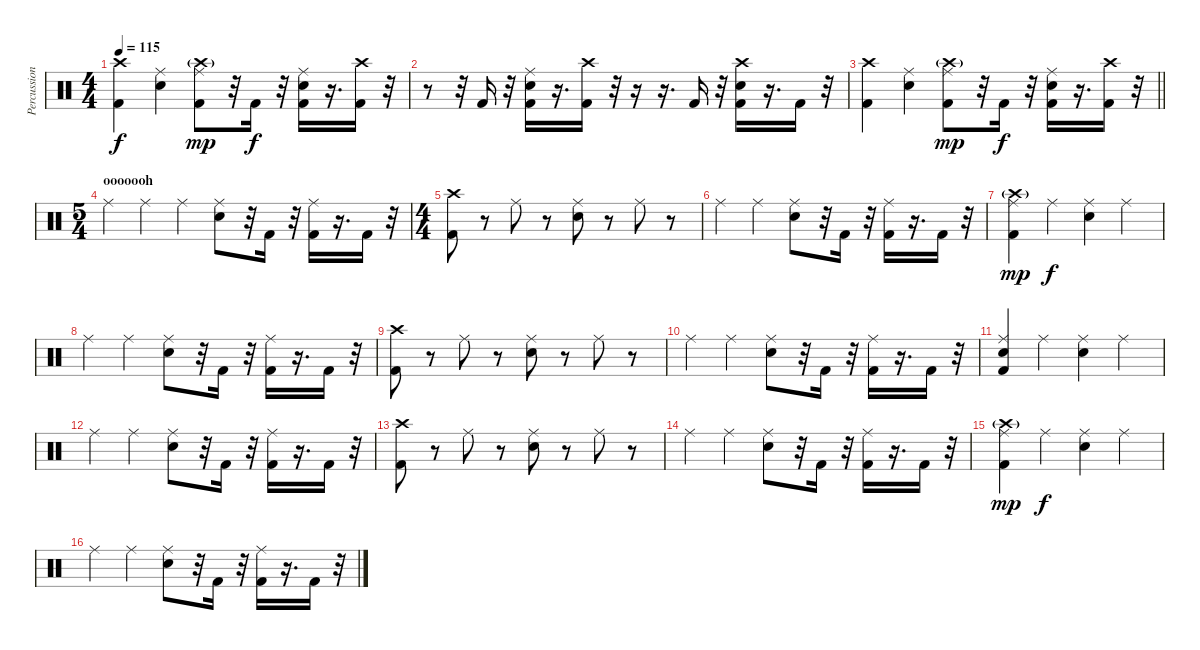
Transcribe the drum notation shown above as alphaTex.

\track ("Percussion" "Percussion") {instrument percussion}
\staff {score}
\articulation defaults
\ts (4 4)
\tempo 115
\clef neutral
\ks c
("Crash high (hit)" "Kick (hit) 2").4{dy f} ("Ride (middle)" "Electric Snare (hit)").4 ("Crash high (hit)"{g} "Ride (middle)" "Kick (hit) 2").8{dy mp} r.32 "Kick (hit) 2".16{dy f} r.32 ("Ride (middle)" "Electric Snare (hit)" "Kick (hit) 2").16 r.16{d} ("Crash high (hit)" "Kick (hit) 2").16 r.32 |
r.8 r.32 "Kick (hit) 2".16 r.32 ("Ride (middle)" "Electric Snare (hit)" "Kick (hit) 2").16 r.16{d} ("Crash high (hit)" "Kick (hit) 2").16 r.32 r.16 r.16{d} "Kick (hit) 2".16 r.32 ("Crash high (hit)" "Electric Snare (hit)" "Kick (hit) 2").16 r.16{d} "Kick (hit) 2".16 r.32 |
\barLineRight lightlight
("Crash high (hit)" "Kick (hit) 2").4 ("Ride (middle)" "Electric Snare (hit)").4 ("Crash high (hit)"{g} "Ride (middle)" "Kick (hit) 2").8{dy mp} r.32 "Kick (hit) 2".16{dy f} r.32 ("Ride (middle)" "Electric Snare (hit)" "Kick (hit) 2").16 r.16{d} ("Crash high (hit)" "Kick (hit) 2").16 r.32 |
\ts (5 4)
\section ("" "ooooooh")
"Ride (middle)".4 "Ride (middle)".4 "Ride (middle)".4 ("Ride (middle)" "Electric Snare (hit)").8 r.32 "Kick (hit) 2".16 r.32 ("Ride (middle)" "Kick (hit) 2").16 r.16{d} "Kick (hit) 2".16 r.32 |
\ts (4 4)
("Crash high (hit)" "Kick (hit) 2").8{volume 12} r.8 "Ride (middle)".8 r.8 ("Ride (middle)" "Electric Snare (hit)").8 r.8 "Ride (middle)".8 r.8 |
"Ride (middle)".4 "Ride (middle)".4 ("Ride (middle)" "Electric Snare (hit)").8 r.32 "Kick (hit) 2".16 r.32 ("Ride (middle)" "Kick (hit) 2").16 r.16{d} "Kick (hit) 2".16 r.32 |
("Ride (middle)" "Crash high (hit)"{g} "Kick (hit) 2").4{dy mp} "Ride (middle)".4{dy f} ("Ride (middle)" "Electric Snare (hit)").4 "Ride (middle)".4 |
"Ride (middle)".4 "Ride (middle)".4 ("Ride (middle)" "Electric Snare (hit)").8 r.32 "Kick (hit) 2".16 r.32 ("Ride (middle)" "Kick (hit) 2").16 r.16{d} "Kick (hit) 2".16 r.32 |
("Crash high (hit)" "Kick (hit) 2").8 r.8 "Ride (middle)".8 r.8 ("Ride (middle)" "Electric Snare (hit)").8 r.8 "Ride (middle)".8 r.8 |
"Ride (middle)".4 "Ride (middle)".4 ("Ride (middle)" "Electric Snare (hit)").8 r.32 "Kick (hit) 2".16 r.32 ("Ride (middle)" "Kick (hit) 2").16 r.16{d} "Kick (hit) 2".16 r.32 |
("Ride (middle)" "Electric Snare (hit)" "Kick (hit) 2").4 "Ride (middle)".4 ("Ride (middle)" "Electric Snare (hit)").4 "Ride (middle)".4 |
"Ride (middle)".4 "Ride (middle)".4 ("Ride (middle)" "Electric Snare (hit)").8 r.32 "Kick (hit) 2".16 r.32 ("Ride (middle)" "Kick (hit) 2").16 r.16{d} "Kick (hit) 2".16 r.32 |
("Crash high (hit)" "Kick (hit) 2").8{volume 12} r.8 "Ride (middle)".8 r.8 ("Ride (middle)" "Electric Snare (hit)").8 r.8 "Ride (middle)".8 r.8 |
"Ride (middle)".4 "Ride (middle)".4 ("Ride (middle)" "Electric Snare (hit)").8 r.32 "Kick (hit) 2".16 r.32 ("Ride (middle)" "Kick (hit) 2").16 r.16{d} "Kick (hit) 2".16 r.32 |
("Ride (middle)" "Crash high (hit)"{g} "Kick (hit) 2").4{dy mp} "Ride (middle)".4{dy f} ("Ride (middle)" "Electric Snare (hit)").4 "Ride (middle)".4 |
"Ride (middle)".4 "Ride (middle)".4 ("Ride (middle)" "Electric Snare (hit)").8 r.32 "Kick (hit) 2".16 r.32 ("Ride (middle)" "Kick (hit) 2").16 r.16{d} "Kick (hit) 2".16 r.32
